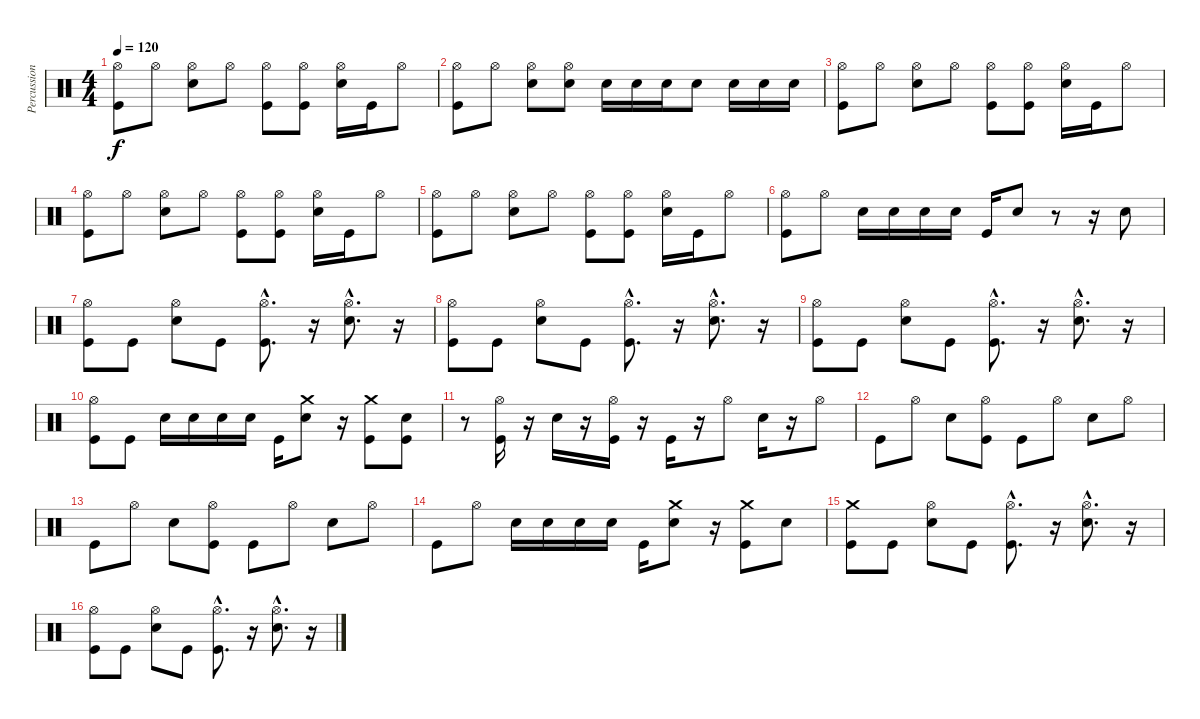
\track ("Percussion" "Percussion") {instrument percussion}
\staff {score}
\articulation defaults
\ts (4 4)
\tempo 120
\clef neutral
\ks c
("Hi-Hat (open)" "Kick (hit)").8{dy f} "Hi-Hat (open)".8 ("Hi-Hat (open)" "Electric Snare (hit)").8 "Hi-Hat (open)".8 ("Hi-Hat (open)" "Kick (hit)").8 ("Hi-Hat (open)" "Kick (hit)").8 ("Hi-Hat (open)" "Electric Snare (hit)").16 "Kick (hit)".16 "Hi-Hat (open)".8 |
("Hi-Hat (open)" "Kick (hit)").8 "Hi-Hat (open)".8 ("Hi-Hat (open)" "Electric Snare (hit)").8 ("Hi-Hat (open)" "Electric Snare (hit)").8 "Electric Snare (hit)".16 "Electric Snare (hit)".16 "Electric Snare (hit)".16 "Electric Snare (hit)".8 "Electric Snare (hit)".16 "Electric Snare (hit)".16 "Electric Snare (hit)".16 |
("Hi-Hat (open)" "Kick (hit)").8 "Hi-Hat (open)".8 ("Hi-Hat (open)" "Electric Snare (hit)").8 "Hi-Hat (open)".8 ("Hi-Hat (open)" "Kick (hit)").8 ("Hi-Hat (open)" "Kick (hit)").8 ("Hi-Hat (open)" "Electric Snare (hit)").16 "Kick (hit)".16 "Hi-Hat (open)".8 |
("Hi-Hat (open)" "Kick (hit)").8 "Hi-Hat (open)".8 ("Hi-Hat (open)" "Electric Snare (hit)").8 "Hi-Hat (open)".8 ("Hi-Hat (open)" "Kick (hit)").8 ("Hi-Hat (open)" "Kick (hit)").8 ("Hi-Hat (open)" "Electric Snare (hit)").16 "Kick (hit)".16 "Hi-Hat (open)".8 |
("Hi-Hat (open)" "Kick (hit)").8 "Hi-Hat (open)".8 ("Hi-Hat (open)" "Electric Snare (hit)").8 "Hi-Hat (open)".8 ("Hi-Hat (open)" "Kick (hit)").8 ("Hi-Hat (open)" "Kick (hit)").8 ("Hi-Hat (open)" "Electric Snare (hit)").16 "Kick (hit)".16 "Hi-Hat (open)".8 |
("Hi-Hat (open)" "Kick (hit)").8 "Hi-Hat (open)".8 "Electric Snare (hit)".16 "Electric Snare (hit)".16 "Electric Snare (hit)".16 "Electric Snare (hit)".16 "Kick (hit)".16 "Electric Snare (hit)".8 r.8 r.16 "Electric Snare (hit)".8 |
("Hi-Hat (open)" "Kick (hit)").8 "Kick (hit)".8 ("Hi-Hat (open)" "Electric Snare (hit)").8 "Kick (hit)".8 ("Hi-Hat (open)"{hac} "Kick (hit)"{hac}).8{d} r.16 ("Hi-Hat (open)"{hac} "Electric Snare (hit)"{hac}).8{d} r.16 |
("Hi-Hat (open)" "Kick (hit)").8 "Kick (hit)".8 ("Hi-Hat (open)" "Electric Snare (hit)").8 "Kick (hit)".8 ("Hi-Hat (open)"{hac} "Kick (hit)"{hac}).8{d} r.16 ("Hi-Hat (open)"{hac} "Electric Snare (hit)"{hac}).8{d} r.16 |
("Hi-Hat (open)" "Kick (hit)").8 "Kick (hit)".8 ("Hi-Hat (open)" "Electric Snare (hit)").8 "Kick (hit)".8 ("Hi-Hat (open)"{hac} "Kick (hit)"{hac}).8{d} r.16 ("Hi-Hat (open)"{hac} "Electric Snare (hit)"{hac}).8{d} r.16 |
("Hi-Hat (open)" "Kick (hit)").8 "Kick (hit)".8 "Electric Snare (hit)".16 "Electric Snare (hit)".16 "Electric Snare (hit)".16 "Electric Snare (hit)".16 "Kick (hit)".16 ("Electric Snare (hit)" "Crash medium (hit)").8 r.16 ("Kick (hit)" "Crash medium (hit)").8 ("Electric Snare (hit)" "Kick (hit)").8 |
r.8 ("Hi-Hat (open)" "Kick (hit)").16 r.16 "Electric Snare (hit)".16 r.16 ("Hi-Hat (open)" "Kick (hit)").16 r.16 "Kick (hit)".16 r.16 "Hi-Hat (open)".8 "Electric Snare (hit)".16 r.16 "Hi-Hat (open)".8 |
"Kick (hit)".8 "Hi-Hat (open)".8 "Electric Snare (hit)".8 ("Hi-Hat (open)" "Kick (hit)").8 "Kick (hit)".8 "Hi-Hat (open)".8 "Electric Snare (hit)".8 "Hi-Hat (open)".8 |
"Kick (hit)".8 "Hi-Hat (open)".8 "Electric Snare (hit)".8 ("Hi-Hat (open)" "Kick (hit)").8 "Kick (hit)".8 "Hi-Hat (open)".8 "Electric Snare (hit)".8 "Hi-Hat (open)".8 |
"Kick (hit)".8 "Hi-Hat (open)".8 "Electric Snare (hit)".16 "Electric Snare (hit)".16 "Electric Snare (hit)".16 "Electric Snare (hit)".16 "Kick (hit)".16 ("Electric Snare (hit)" "Crash medium (hit)").8 r.16 ("Kick (hit)" "Crash medium (hit)").8 "Electric Snare (hit)".8 |
("Kick (hit)" "Crash medium (hit)").8 "Kick (hit)".8 ("Hi-Hat (open)" "Electric Snare (hit)").8 "Kick (hit)".8 ("Hi-Hat (open)"{hac} "Kick (hit)"{hac}).8{d} r.16 ("Hi-Hat (open)"{hac} "Electric Snare (hit)"{hac}).8{d} r.16 |
("Hi-Hat (open)" "Kick (hit)").8 "Kick (hit)".8 ("Hi-Hat (open)" "Electric Snare (hit)").8 "Kick (hit)".8 ("Hi-Hat (open)"{hac} "Kick (hit)"{hac}).8{d} r.16 ("Hi-Hat (open)"{hac} "Electric Snare (hit)"{hac}).8{d} r.16
